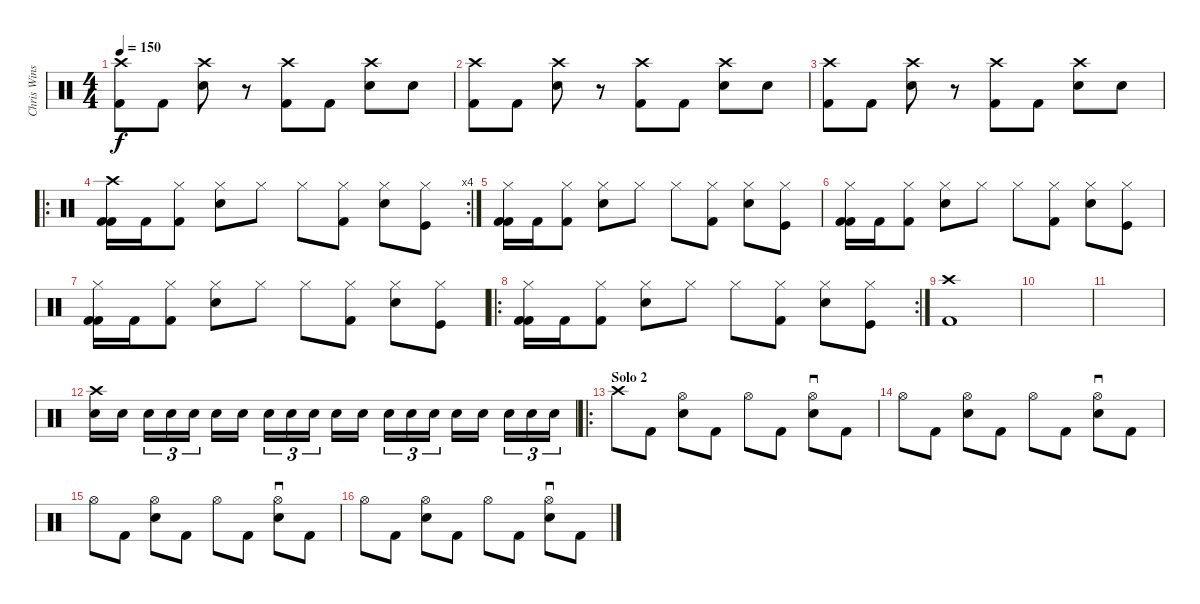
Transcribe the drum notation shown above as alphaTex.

\track ("Chris Winship (Drums)" "Chris Wins") {instrument percussion}
\staff {score}
\articulation defaults
\ts (4 4)
\tempo 150
\clef neutral
\ks c
("Crash high (hit)" "Kick (hit) 2").8{dy f} "Kick (hit) 2".8 ("Crash high (hit)" "Snare (hit) 2").8 r.8 ("Crash high (hit)" "Kick (hit) 2").8 "Kick (hit) 2".8 ("Crash high (hit)" "Snare (hit) 2").8 "Snare (hit) 2".8 |
("Crash high (hit)" "Kick (hit) 2").8 "Kick (hit) 2".8 ("Crash high (hit)" "Snare (hit) 2").8 r.8 ("Crash high (hit)" "Kick (hit) 2").8 "Kick (hit) 2".8 ("Crash high (hit)" "Snare (hit) 2").8 "Snare (hit) 2".8 |
("Crash high (hit)" "Kick (hit) 2").8 "Kick (hit) 2".8 ("Crash high (hit)" "Snare (hit) 2").8 r.8 ("Crash high (hit)" "Kick (hit) 2").8 "Kick (hit) 2".8 ("Crash high (hit)" "Snare (hit) 2").8 "Snare (hit) 2".8 |
\ro
\rc 4
("Crash high (hit)" "Kick (hit) 2" "Kick (hit) 2").16 "Kick (hit) 2".16 ("Hi-Hat (closed)" "Kick (hit) 2").8 ("Hi-Hat (closed)" "Snare (hit) 2").8 "Hi-Hat (closed)".8 "Hi-Hat (closed)".8 ("Hi-Hat (closed)" "Kick (hit) 2").8 ("Hi-Hat (closed)" "Snare (hit) 2").8 ("Hi-Hat (closed)" "Kick (hit)").8 |
("Hi-Hat (closed)" "Kick (hit) 2" "Kick (hit) 2").16 "Kick (hit) 2".16 ("Hi-Hat (closed)" "Kick (hit) 2").8 ("Hi-Hat (closed)" "Snare (hit) 2").8 "Hi-Hat (closed)".8 "Hi-Hat (closed)".8 ("Hi-Hat (closed)" "Kick (hit) 2").8 ("Hi-Hat (closed)" "Snare (hit) 2").8 ("Hi-Hat (closed)" "Kick (hit)").8 |
("Hi-Hat (closed)" "Kick (hit) 2" "Kick (hit) 2").16 "Kick (hit) 2".16 ("Hi-Hat (closed)" "Kick (hit) 2").8 ("Hi-Hat (closed)" "Snare (hit) 2").8 "Hi-Hat (closed)".8 "Hi-Hat (closed)".8 ("Hi-Hat (closed)" "Kick (hit) 2").8 ("Hi-Hat (closed)" "Snare (hit) 2").8 ("Hi-Hat (closed)" "Kick (hit)").8 |
("Hi-Hat (closed)" "Kick (hit) 2" "Kick (hit) 2").16 "Kick (hit) 2".16 ("Hi-Hat (closed)" "Kick (hit) 2").8 ("Hi-Hat (closed)" "Snare (hit) 2").8 "Hi-Hat (closed)".8 "Hi-Hat (closed)".8 ("Hi-Hat (closed)" "Kick (hit) 2").8 ("Hi-Hat (closed)" "Snare (hit) 2").8 ("Hi-Hat (closed)" "Kick (hit)").8 |
\ro
\rc 2
("Hi-Hat (closed)" "Kick (hit) 2" "Kick (hit) 2").16 "Kick (hit) 2".16 ("Hi-Hat (closed)" "Kick (hit) 2").8 ("Hi-Hat (closed)" "Snare (hit) 2").8 "Hi-Hat (closed)".8 "Hi-Hat (closed)".8 ("Hi-Hat (closed)" "Kick (hit) 2").8 ("Hi-Hat (closed)" "Snare (hit) 2").8 ("Hi-Hat (closed)" "Kick (hit)").8 |
("Crash high (hit)" "Kick (hit) 2").1 |
|
|
("Crash high (hit)" "Snare (hit) 2").16 "Snare (hit) 2".16 "Snare (hit) 2".16{tu (3 2)} "Snare (hit) 2".16{tu (3 2)} "Snare (hit) 2".16{tu (3 2)} "Snare (hit) 2".16 "Snare (hit) 2".16 "Snare (hit) 2".16{tu (3 2)} "Snare (hit) 2".16{tu (3 2)} "Snare (hit) 2".16{tu (3 2)} "Snare (hit) 2".16 "Snare (hit) 2".16 "Snare (hit) 2".16{tu (3 2)} "Snare (hit) 2".16{tu (3 2)} "Snare (hit) 2".16{tu (3 2)} "Snare (hit) 2".16 "Snare (hit) 2".16 "Snare (hit) 2".16{tu (3 2)} "Snare (hit) 2".16{tu (3 2)} "Snare (hit) 2".16{tu (3 2)} |
\ro
\section ("" "Solo 2")
"Crash high (hit)".8 "Kick (hit) 2".8 ("Hi-Hat (open)" "Snare (hit) 2").8 "Kick (hit) 2".8 "Hi-Hat (open)".8 "Kick (hit) 2".8 ("Hi-Hat (open)" "Snare (hit) 2").8{sd} "Kick (hit) 2".8 |
"Hi-Hat (open)".8 "Kick (hit) 2".8 ("Hi-Hat (open)" "Snare (hit) 2").8 "Kick (hit) 2".8 "Hi-Hat (open)".8 "Kick (hit) 2".8 ("Hi-Hat (open)" "Snare (hit) 2").8{sd} "Kick (hit) 2".8 |
"Hi-Hat (open)".8 "Kick (hit) 2".8 ("Hi-Hat (open)" "Snare (hit) 2").8 "Kick (hit) 2".8 "Hi-Hat (open)".8 "Kick (hit) 2".8 ("Hi-Hat (open)" "Snare (hit) 2").8{sd} "Kick (hit) 2".8 |
"Hi-Hat (open)".8 "Kick (hit) 2".8 ("Hi-Hat (open)" "Snare (hit) 2").8 "Kick (hit) 2".8 "Hi-Hat (open)".8 "Kick (hit) 2".8 ("Hi-Hat (open)" "Snare (hit) 2").8{sd} "Kick (hit) 2".8
